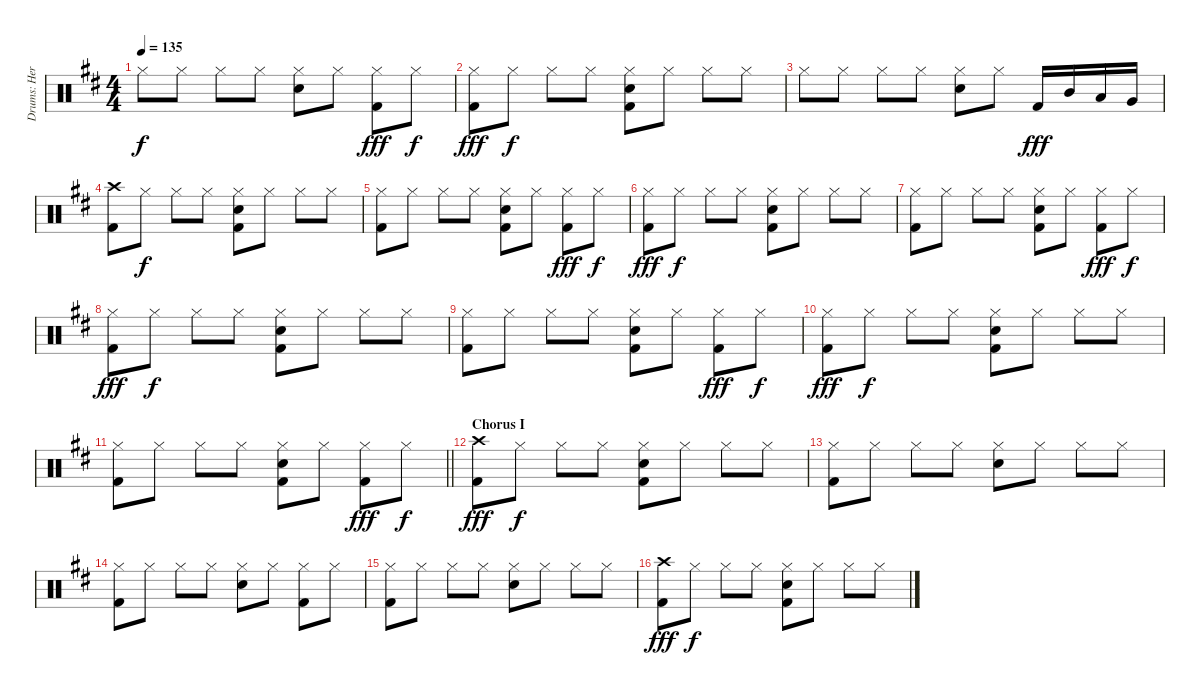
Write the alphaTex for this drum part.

\track ("Drums: Herman" "Drums: Her") {instrument percussion}
\staff {score}
\articulation defaults
\ts (4 4)
\tempo 135
\clef neutral
\ks d "Hi-Hat (closed)".8{dy f} "Hi-Hat (closed)".8 "Hi-Hat (closed)".8 "Hi-Hat (closed)".8
("Hi-Hat (closed)" "Snare (hit) 2").8 "Hi-Hat (closed)".8 ("Hi-Hat (closed)" "Kick (hit) 2").8{dy fff} "Hi-Hat (closed)".8{dy f} |
("Hi-Hat (closed)" "Kick (hit) 2").8{dy fff} "Hi-Hat (closed)".8{dy f} "Hi-Hat (closed)".8 "Hi-Hat (closed)".8 ("Hi-Hat (closed)" "Snare (hit) 2" "Kick (hit) 2").8 "Hi-Hat (closed)".8 "Hi-Hat (closed)".8 "Hi-Hat (closed)".8 |
"Hi-Hat (closed)".8 "Hi-Hat (closed)".8 "Hi-Hat (closed)".8 "Hi-Hat (closed)".8 ("Hi-Hat (closed)" "Snare (hit) 2").8 "Hi-Hat (closed)".8 "Kick (hit) 2".16{dy fff} "Mid Tom (hit)".16 "Low Tom (hit)".16 "Very Low Tom (hit)".16 |
("Crash high (hit)" "Kick (hit) 2").8 "Hi-Hat (closed)".8{dy f} "Hi-Hat (closed)".8 "Hi-Hat (closed)".8 ("Hi-Hat (closed)" "Snare (hit) 2" "Kick (hit) 2").8 "Hi-Hat (closed)".8 "Hi-Hat (closed)".8 "Hi-Hat (closed)".8 |
("Hi-Hat (closed)" "Kick (hit) 2").8 "Hi-Hat (closed)".8 "Hi-Hat (closed)".8 "Hi-Hat (closed)".8 ("Hi-Hat (closed)" "Snare (hit) 2" "Kick (hit) 2").8 "Hi-Hat (closed)".8 ("Hi-Hat (closed)" "Kick (hit) 2").8{dy fff} "Hi-Hat (closed)".8{dy f} |
("Hi-Hat (closed)" "Kick (hit) 2").8{dy fff} "Hi-Hat (closed)".8{dy f} "Hi-Hat (closed)".8 "Hi-Hat (closed)".8 ("Hi-Hat (closed)" "Snare (hit) 2" "Kick (hit) 2").8 "Hi-Hat (closed)".8 "Hi-Hat (closed)".8 "Hi-Hat (closed)".8 |
("Hi-Hat (closed)" "Kick (hit) 2").8 "Hi-Hat (closed)".8 "Hi-Hat (closed)".8 "Hi-Hat (closed)".8 ("Hi-Hat (closed)" "Snare (hit) 2" "Kick (hit) 2").8 "Hi-Hat (closed)".8 ("Hi-Hat (closed)" "Kick (hit) 2").8{dy fff} "Hi-Hat (closed)".8{dy f} |
("Hi-Hat (closed)" "Kick (hit) 2").8{dy fff} "Hi-Hat (closed)".8{dy f} "Hi-Hat (closed)".8 "Hi-Hat (closed)".8 ("Hi-Hat (closed)" "Snare (hit) 2" "Kick (hit) 2").8 "Hi-Hat (closed)".8 "Hi-Hat (closed)".8 "Hi-Hat (closed)".8 |
("Hi-Hat (closed)" "Kick (hit) 2").8 "Hi-Hat (closed)".8 "Hi-Hat (closed)".8 "Hi-Hat (closed)".8 ("Hi-Hat (closed)" "Snare (hit) 2" "Kick (hit) 2").8 "Hi-Hat (closed)".8 ("Hi-Hat (closed)" "Kick (hit) 2").8{dy fff} "Hi-Hat (closed)".8{dy f} |
("Hi-Hat (closed)" "Kick (hit) 2").8{dy fff} "Hi-Hat (closed)".8{dy f} "Hi-Hat (closed)".8 "Hi-Hat (closed)".8 ("Hi-Hat (closed)" "Snare (hit) 2" "Kick (hit) 2").8 "Hi-Hat (closed)".8 "Hi-Hat (closed)".8 "Hi-Hat (closed)".8 |
\barLineRight lightlight
("Hi-Hat (closed)" "Kick (hit) 2").8 "Hi-Hat (closed)".8 "Hi-Hat (closed)".8 "Hi-Hat (closed)".8 ("Hi-Hat (closed)" "Snare (hit) 2" "Kick (hit) 2").8 "Hi-Hat (closed)".8 ("Hi-Hat (closed)" "Kick (hit) 2").8{dy fff} "Hi-Hat (closed)".8{dy f} |
\section ("" "Chorus I")
("Crash high (hit)" "Kick (hit) 2").8{dy fff} "Hi-Hat (closed)".8{dy f} "Hi-Hat (closed)".8 "Hi-Hat (closed)".8 ("Hi-Hat (closed)" "Snare (hit) 2" "Kick (hit) 2").8 "Hi-Hat (closed)".8 "Hi-Hat (closed)".8 "Hi-Hat (closed)".8 |
("Hi-Hat (closed)" "Kick (hit) 2").8 "Hi-Hat (closed)".8 "Hi-Hat (closed)".8 "Hi-Hat (closed)".8 ("Hi-Hat (closed)" "Snare (hit) 2").8 "Hi-Hat (closed)".8 "Hi-Hat (closed)".8 "Hi-Hat (closed)".8 |
("Hi-Hat (closed)" "Kick (hit) 2").8 "Hi-Hat (closed)".8 "Hi-Hat (closed)".8 "Hi-Hat (closed)".8 ("Hi-Hat (closed)" "Snare (hit) 2").8 "Hi-Hat (closed)".8 ("Hi-Hat (closed)" "Kick (hit) 2").8 "Hi-Hat (closed)".8 |
("Hi-Hat (closed)" "Kick (hit) 2").8 "Hi-Hat (closed)".8 "Hi-Hat (closed)".8 "Hi-Hat (closed)".8 ("Hi-Hat (closed)" "Snare (hit) 2").8 "Hi-Hat (closed)".8 "Hi-Hat (closed)".8 "Hi-Hat (closed)".8 |
("Crash high (hit)" "Kick (hit) 2").8{dy fff} "Hi-Hat (closed)".8{dy f} "Hi-Hat (closed)".8 "Hi-Hat (closed)".8 ("Hi-Hat (closed)" "Snare (hit) 2" "Kick (hit) 2").8 "Hi-Hat (closed)".8 "Hi-Hat (closed)".8 "Hi-Hat (closed)".8
